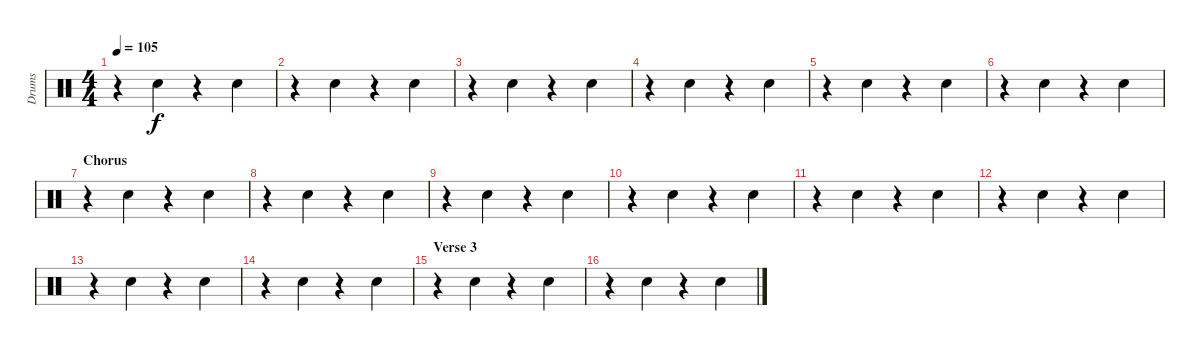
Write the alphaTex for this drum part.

\track ("Drums" "Drums") {instrument percussion}
\staff {score}
\articulation defaults
\ts (4 4)
\tempo 105
\clef neutral
\ks c
r.4{dy f} "Hand Clap (hit)".4 r.4 "Hand Clap (hit)".4 |
r.4 "Hand Clap (hit)".4 r.4 "Hand Clap (hit)".4 |
r.4 "Hand Clap (hit)".4 r.4 "Hand Clap (hit)".4 |
r.4 "Hand Clap (hit)".4 r.4 "Hand Clap (hit)".4 |
r.4 "Hand Clap (hit)".4 r.4 "Hand Clap (hit)".4 |
r.4 "Hand Clap (hit)".4 r.4 "Hand Clap (hit)".4 |
\section ("" "Chorus")
r.4 "Hand Clap (hit)".4 r.4 "Hand Clap (hit)".4 |
r.4 "Hand Clap (hit)".4 r.4 "Hand Clap (hit)".4 |
r.4 "Hand Clap (hit)".4 r.4 "Hand Clap (hit)".4 |
r.4 "Hand Clap (hit)".4 r.4 "Hand Clap (hit)".4 |
r.4 "Hand Clap (hit)".4 r.4 "Hand Clap (hit)".4 |
r.4 "Hand Clap (hit)".4 r.4 "Hand Clap (hit)".4 |
r.4 "Hand Clap (hit)".4 r.4 "Hand Clap (hit)".4 |
r.4 "Hand Clap (hit)".4 r.4 "Hand Clap (hit)".4 |
\section ("" "Verse 3")
r.4 "Hand Clap (hit)".4 r.4 "Hand Clap (hit)".4 |
r.4 "Hand Clap (hit)".4 r.4 "Hand Clap (hit)".4
